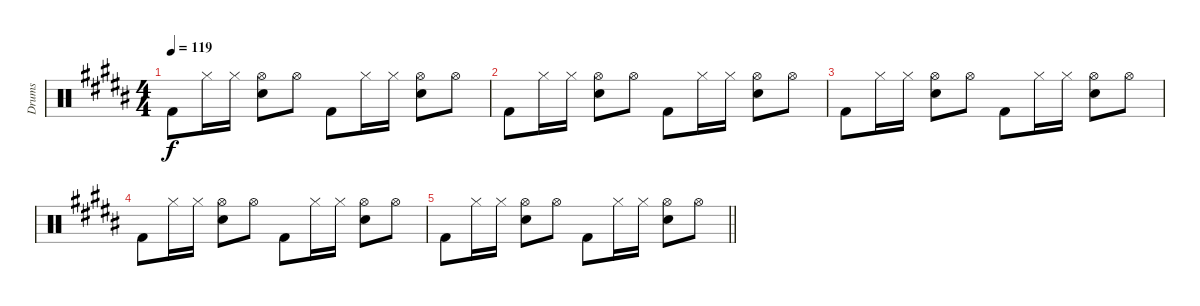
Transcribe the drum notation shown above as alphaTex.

\track ("Drums" "Drums") {instrument percussion}
\staff {score}
\articulation defaults
\ts (4 4)
\tempo 119
\clef neutral
\ks b "Kick (hit) 2".8{dy f} "Hi-Hat (closed)".16 "Hi-Hat (closed)".16
("Snare (hit) 2" "Hi-Hat (open)").8 "Hi-Hat (open)".8 "Kick (hit) 2".8 "Hi-Hat (closed)".16 "Hi-Hat (closed)".16 ("Snare (hit) 2" "Hi-Hat (open)").8 "Hi-Hat (open)".8 |
"Kick (hit) 2".8 "Hi-Hat (closed)".16 "Hi-Hat (closed)".16 ("Snare (hit) 2" "Hi-Hat (open)").8 "Hi-Hat (open)".8 "Kick (hit) 2".8 "Hi-Hat (closed)".16 "Hi-Hat (closed)".16 ("Snare (hit) 2" "Hi-Hat (open)").8 "Hi-Hat (open)".8 |
"Kick (hit) 2".8 "Hi-Hat (closed)".16 "Hi-Hat (closed)".16 ("Snare (hit) 2" "Hi-Hat (open)").8 "Hi-Hat (open)".8 "Kick (hit) 2".8 "Hi-Hat (closed)".16 "Hi-Hat (closed)".16 ("Snare (hit) 2" "Hi-Hat (open)").8 "Hi-Hat (open)".8 |
"Kick (hit) 2".8 "Hi-Hat (closed)".16 "Hi-Hat (closed)".16 ("Snare (hit) 2" "Hi-Hat (open)").8 "Hi-Hat (open)".8 "Kick (hit) 2".8 "Hi-Hat (closed)".16 "Hi-Hat (closed)".16 ("Snare (hit) 2" "Hi-Hat (open)").8 "Hi-Hat (open)".8 |
\barLineRight lightlight "Kick (hit) 2".8 "Hi-Hat (closed)".16 "Hi-Hat (closed)".16
("Snare (hit) 2" "Hi-Hat (open)").8 "Hi-Hat (open)".8 "Kick (hit) 2".8 "Hi-Hat (closed)".16 "Hi-Hat (closed)".16 ("Snare (hit) 2" "Hi-Hat (open)").8 "Hi-Hat (open)".8
